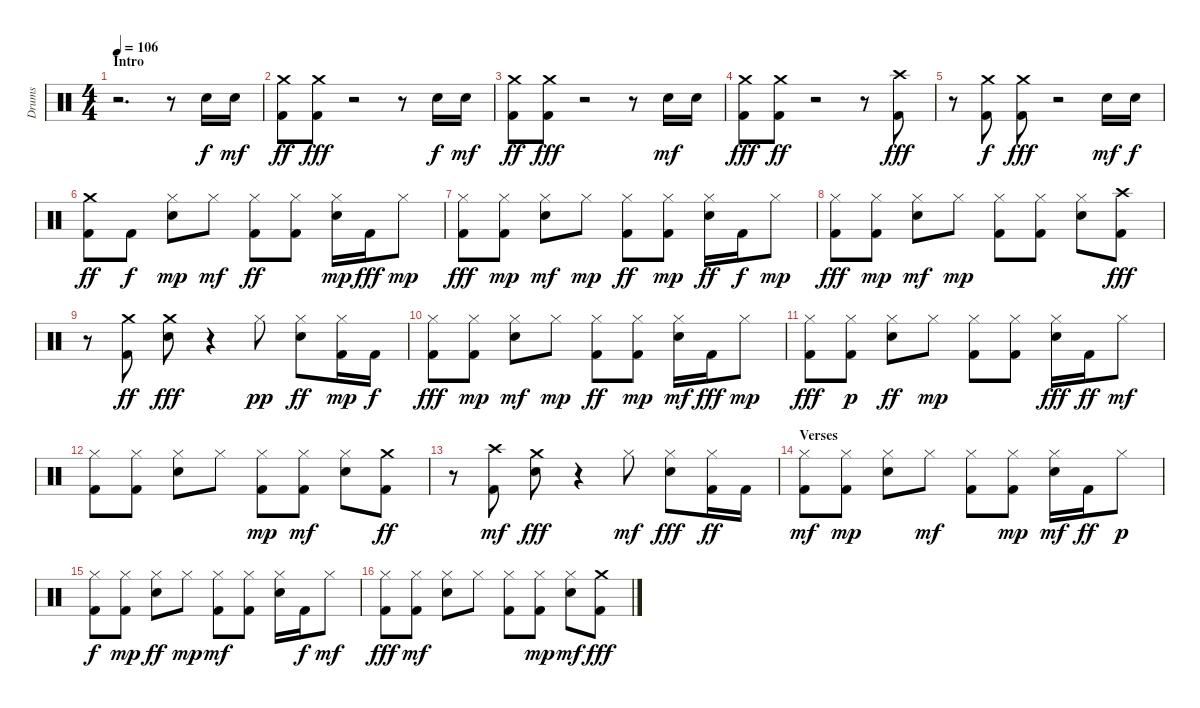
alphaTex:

\track ("Drums" "Drums") {instrument percussion}
\staff {score}
\articulation defaults
\ts (4 4)
\section ("" "Intro")
\tempo 106
\clef neutral
\ks c
r.2{d dy f} r.8 "Snare (hit) 2".16 "Snare (hit) 2".16{dy mf} |
("Kick (hit) 2" "Crash medium (hit)").8{dy ff} ("Crash medium (hit)" "Kick (hit) 2").8{dy fff} r.2 r.8 "Snare (hit) 2".16{dy f} "Snare (hit) 2".16{dy mf} |
("Crash medium (hit)" "Kick (hit) 2").8{dy ff} ("Crash medium (hit)" "Kick (hit) 2").8{dy fff} r.2 r.8 "Snare (hit) 2".16{dy mf} "Snare (hit) 2".16 |
("Kick (hit) 2" "Crash medium (hit)").8{dy fff} ("Kick (hit) 2" "Crash medium (hit)").8{dy ff} r.2 r.8 ("Crash high (hit)" "Kick (hit) 2").8{dy fff} |
r.8 ("Crash medium (hit)" "Kick (hit) 2").8{dy f} ("Kick (hit) 2" "Crash medium (hit)").8{dy fff} r.2 "Snare (hit) 2".16{dy mf} "Snare (hit) 2".16{dy f} |
("Kick (hit) 2" "Crash medium (hit)").8{dy ff} "Kick (hit) 2".8{dy f} ("Snare (hit) 2" "Hi-Hat (closed)").8{dy mp} "Hi-Hat (closed)".8{dy mf} ("Hi-Hat (closed)" "Kick (hit) 2").8{dy ff} ("Hi-Hat (closed)" "Kick (hit) 2").8 ("Snare (hit) 2" "Hi-Hat (closed)").16{dy mp} "Kick (hit) 2".16{dy fff} "Hi-Hat (closed)".8{dy mp} |
("Kick (hit) 2" "Hi-Hat (closed)").8{dy fff} ("Kick (hit) 2" "Hi-Hat (closed)").8{dy mp} ("Snare (hit) 2" "Hi-Hat (closed)").8{dy mf} "Hi-Hat (closed)".8{dy mp} ("Hi-Hat (closed)" "Kick (hit) 2").8{dy ff} ("Hi-Hat (closed)" "Kick (hit) 2").8{dy mp} ("Snare (hit) 2" "Hi-Hat (closed)").16{dy ff} "Kick (hit) 2".16{dy f} "Hi-Hat (closed)".8{dy mp} |
("Kick (hit) 2" "Hi-Hat (closed)").8{dy fff} ("Kick (hit) 2" "Hi-Hat (closed)").8{dy mp} ("Snare (hit) 2" "Hi-Hat (closed)").8{dy mf} "Hi-Hat (closed)".8{dy mp} ("Kick (hit) 2" "Hi-Hat (closed)").8 ("Kick (hit) 2" "Hi-Hat (closed)").8 ("Snare (hit) 2" "Hi-Hat (closed)").8 ("Kick (hit) 2" "Crash high (hit)").8{dy fff} |
r.8 ("Kick (hit) 2" "Crash medium (hit)").8{dy ff} ("Crash medium (hit)" "Snare (hit) 2").8{dy fff} r.4 "Hi-Hat (closed)".8{dy pp} ("Snare (hit) 2" "Hi-Hat (closed)").8{dy ff} ("Kick (hit) 2" "Hi-Hat (closed)").16{dy mp} "Kick (hit) 2".16{dy f} |
("Kick (hit) 2" "Hi-Hat (closed)").8{dy fff} ("Kick (hit) 2" "Hi-Hat (closed)").8{dy mp} ("Snare (hit) 2" "Hi-Hat (closed)").8{dy mf} "Hi-Hat (closed)".8{dy mp} ("Hi-Hat (closed)" "Kick (hit) 2").8{dy ff} ("Kick (hit) 2" "Hi-Hat (closed)").8{dy mp} ("Snare (hit) 2" "Hi-Hat (closed)").16{dy mf} "Kick (hit) 2".16{dy fff} "Hi-Hat (closed)".8{dy mp} |
("Hi-Hat (closed)" "Kick (hit) 2").8{dy fff} ("Hi-Hat (closed)" "Kick (hit) 2").8{dy p} ("Hi-Hat (closed)" "Snare (hit) 2").8{dy ff} "Hi-Hat (closed)".8{dy mp} ("Kick (hit) 2" "Hi-Hat (closed)").8 ("Kick (hit) 2" "Hi-Hat (closed)").8 ("Snare (hit) 2" "Hi-Hat (closed)").16{dy fff} "Kick (hit) 2".16{dy ff} "Hi-Hat (closed)".8{dy mf} |
("Kick (hit) 2" "Hi-Hat (closed)").8 ("Kick (hit) 2" "Hi-Hat (closed)").8 ("Snare (hit) 2" "Hi-Hat (closed)").8 "Hi-Hat (closed)".8 ("Hi-Hat (closed)" "Kick (hit) 2").8{dy mp} ("Hi-Hat (closed)" "Kick (hit) 2").8{dy mf} ("Snare (hit) 2" "Hi-Hat (closed)").8 ("Kick (hit) 2" "Crash medium (hit)").8{dy ff} |
r.8 ("Kick (hit) 2" "Crash high (hit)").8{dy mf} ("Crash medium (hit)" "Snare (hit) 2").8{dy fff} r.4 "Hi-Hat (closed)".8{dy mf} ("Snare (hit) 2" "Hi-Hat (closed)").8{dy fff} ("Kick (hit) 2" "Hi-Hat (closed)").16{dy ff} "Kick (hit) 2".16 |
\section ("" "Verses")
("Kick (hit) 2" "Hi-Hat (closed)").8{dy mf} ("Kick (hit) 2" "Hi-Hat (closed)").8{dy mp} ("Snare (hit) 2" "Hi-Hat (closed)").8 "Hi-Hat (closed)".8{dy mf} ("Hi-Hat (closed)" "Kick (hit) 2").8 ("Hi-Hat (closed)" "Kick (hit) 2").8{dy mp} ("Hi-Hat (closed)" "Snare (hit) 2").16{dy mf} "Kick (hit) 2".16{dy ff} "Hi-Hat (closed)".8{dy p} |
("Hi-Hat (closed)" "Kick (hit) 2").8{dy f} ("Kick (hit) 2" "Hi-Hat (closed)").8{dy mp} ("Snare (hit) 2" "Hi-Hat (closed)").8{dy ff} "Hi-Hat (closed)".8{dy mp} ("Kick (hit) 2" "Hi-Hat (closed)").8{dy mf} ("Kick (hit) 2" "Hi-Hat (closed)").8 ("Snare (hit) 2" "Hi-Hat (closed)").16 "Kick (hit) 2".16{dy f} "Hi-Hat (closed)".8{dy mf} |
("Kick (hit) 2" "Hi-Hat (closed)").8{dy fff} ("Kick (hit) 2" "Hi-Hat (closed)").8{dy mf} ("Snare (hit) 2" "Hi-Hat (closed)").8 "Hi-Hat (closed)".8 ("Kick (hit) 2" "Hi-Hat (closed)").8 ("Kick (hit) 2" "Hi-Hat (closed)").8{dy mp} ("Snare (hit) 2" "Hi-Hat (closed)").8{dy mf} ("Kick (hit) 2" "Crash medium (hit)").8{dy fff}
